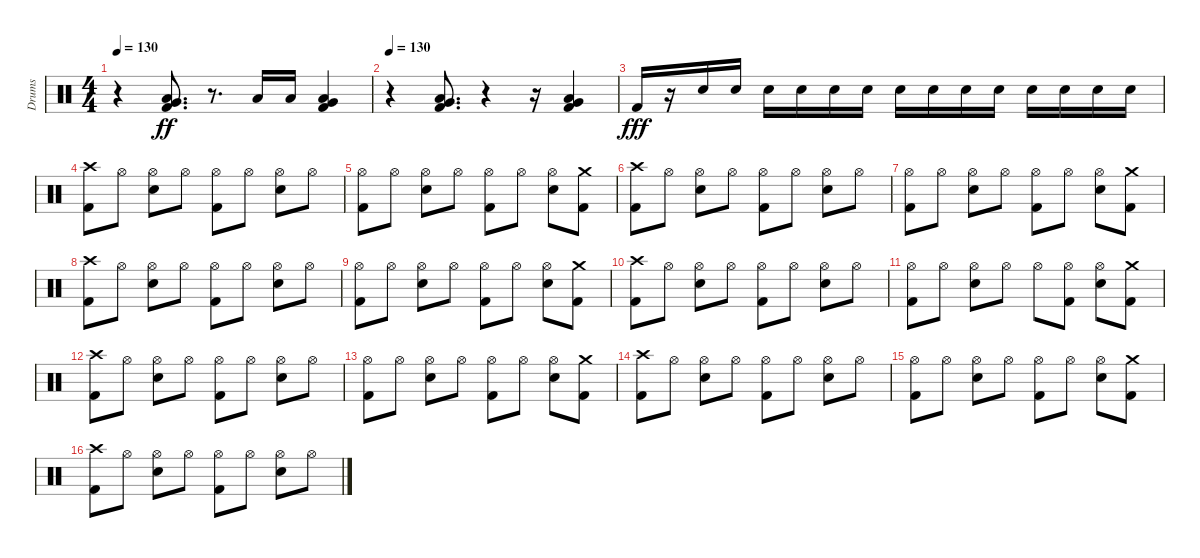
\track ("Drums" "Drums") {instrument percussion}
\staff {score}
\articulation defaults
\ts (4 4)
\tempo 130
\clef neutral
\ks c
r.4{dy ff} ("Low Tom (hit)" "Very Low Tom (hit)" "Kick (hit) 2").8{d} r.8{d} "Low Tom (hit)".16 "Low Tom (hit)".16 ("Low Tom (hit)" "Very Low Tom (hit)" "Kick (hit) 2").4 |
\tempo 130
r.4 ("Low Tom (hit)" "Very Low Tom (hit)" "Kick (hit) 2").8{d} r.4 r.16 ("Low Tom (hit)" "Very Low Tom (hit)" "Kick (hit) 2").4 |
"Kick (hit) 2".16{dy fff} r.16 "Electric Snare (hit)".16 "Electric Snare (hit)".16 "Electric Snare (hit)".16 "Electric Snare (hit)".16 "Electric Snare (hit)".16 "Electric Snare (hit)".16 "Electric Snare (hit)".16 "Electric Snare (hit)".16 "Electric Snare (hit)".16 "Electric Snare (hit)".16 "Electric Snare (hit)".16 "Electric Snare (hit)".16 "Electric Snare (hit)".16 "Electric Snare (hit)".16 |
("Kick (hit) 2" "Crash high (hit)").8 "Hi-Hat (open)".8 ("Electric Snare (hit)" "Hi-Hat (open)").8 "Hi-Hat (open)".8 ("Kick (hit) 2" "Hi-Hat (open)").8 "Hi-Hat (open)".8 ("Electric Snare (hit)" "Hi-Hat (open)").8 "Hi-Hat (open)".8 |
("Hi-Hat (open)" "Kick (hit) 2").8 "Hi-Hat (open)".8 ("Hi-Hat (open)" "Electric Snare (hit)").8 "Hi-Hat (open)".8 ("Hi-Hat (open)" "Kick (hit) 2").8 "Hi-Hat (open)".8 ("Hi-Hat (open)" "Electric Snare (hit)").8 ("Crash medium (hit)" "Kick (hit) 2").8 |
("Crash high (hit)" "Kick (hit) 2").8 "Hi-Hat (open)".8 ("Hi-Hat (open)" "Electric Snare (hit)").8 "Hi-Hat (open)".8 ("Hi-Hat (open)" "Kick (hit) 2").8 "Hi-Hat (open)".8 ("Hi-Hat (open)" "Electric Snare (hit)").8 "Hi-Hat (open)".8 |
("Hi-Hat (open)" "Kick (hit) 2").8 "Hi-Hat (open)".8 ("Hi-Hat (open)" "Electric Snare (hit)").8 "Hi-Hat (open)".8 ("Hi-Hat (open)" "Kick (hit) 2").8 "Hi-Hat (open)".8 ("Hi-Hat (open)" "Electric Snare (hit)").8 ("Crash medium (hit)" "Kick (hit) 2").8 |
("Kick (hit) 2" "Crash high (hit)").8 "Hi-Hat (open)".8 ("Electric Snare (hit)" "Hi-Hat (open)").8 "Hi-Hat (open)".8 ("Kick (hit) 2" "Hi-Hat (open)").8 "Hi-Hat (open)".8 ("Electric Snare (hit)" "Hi-Hat (open)").8 "Hi-Hat (open)".8 |
("Hi-Hat (open)" "Kick (hit) 2").8 "Hi-Hat (open)".8 ("Hi-Hat (open)" "Electric Snare (hit)").8 "Hi-Hat (open)".8 ("Hi-Hat (open)" "Kick (hit) 2").8 "Hi-Hat (open)".8 ("Hi-Hat (open)" "Electric Snare (hit)").8 ("Crash medium (hit)" "Kick (hit) 2").8 |
("Crash high (hit)" "Kick (hit) 2").8 "Hi-Hat (open)".8 ("Hi-Hat (open)" "Electric Snare (hit)").8 "Hi-Hat (open)".8 ("Hi-Hat (open)" "Kick (hit) 2").8 "Hi-Hat (open)".8 ("Hi-Hat (open)" "Electric Snare (hit)").8 "Hi-Hat (open)".8 |
("Hi-Hat (open)" "Kick (hit) 2").8 "Hi-Hat (open)".8 ("Hi-Hat (open)" "Electric Snare (hit)").8 "Hi-Hat (open)".8 "Hi-Hat (open)".8 ("Kick (hit) 2" "Hi-Hat (open)").8 ("Electric Snare (hit)" "Hi-Hat (open)").8 ("Crash medium (hit)" "Kick (hit) 2").8 |
("Kick (hit) 2" "Crash high (hit)").8 "Hi-Hat (open)".8 ("Electric Snare (hit)" "Hi-Hat (open)").8 "Hi-Hat (open)".8 ("Kick (hit) 2" "Hi-Hat (open)").8 "Hi-Hat (open)".8 ("Electric Snare (hit)" "Hi-Hat (open)").8 "Hi-Hat (open)".8 |
("Hi-Hat (open)" "Kick (hit) 2").8 "Hi-Hat (open)".8 ("Hi-Hat (open)" "Electric Snare (hit)").8 "Hi-Hat (open)".8 ("Hi-Hat (open)" "Kick (hit) 2").8 "Hi-Hat (open)".8 ("Hi-Hat (open)" "Electric Snare (hit)").8 ("Crash medium (hit)" "Kick (hit) 2").8 |
("Crash high (hit)" "Kick (hit) 2").8 "Hi-Hat (open)".8 ("Hi-Hat (open)" "Electric Snare (hit)").8 "Hi-Hat (open)".8 ("Hi-Hat (open)" "Kick (hit) 2").8 "Hi-Hat (open)".8 ("Hi-Hat (open)" "Electric Snare (hit)").8 "Hi-Hat (open)".8 |
("Hi-Hat (open)" "Kick (hit) 2").8 "Hi-Hat (open)".8 ("Hi-Hat (open)" "Electric Snare (hit)").8 "Hi-Hat (open)".8 ("Hi-Hat (open)" "Kick (hit) 2").8 "Hi-Hat (open)".8 ("Hi-Hat (open)" "Electric Snare (hit)").8 ("Crash medium (hit)" "Kick (hit) 2").8 |
("Kick (hit) 2" "Crash high (hit)").8 "Hi-Hat (open)".8 ("Electric Snare (hit)" "Hi-Hat (open)").8 "Hi-Hat (open)".8 ("Kick (hit) 2" "Hi-Hat (open)").8 "Hi-Hat (open)".8 ("Electric Snare (hit)" "Hi-Hat (open)").8 "Hi-Hat (open)".8
